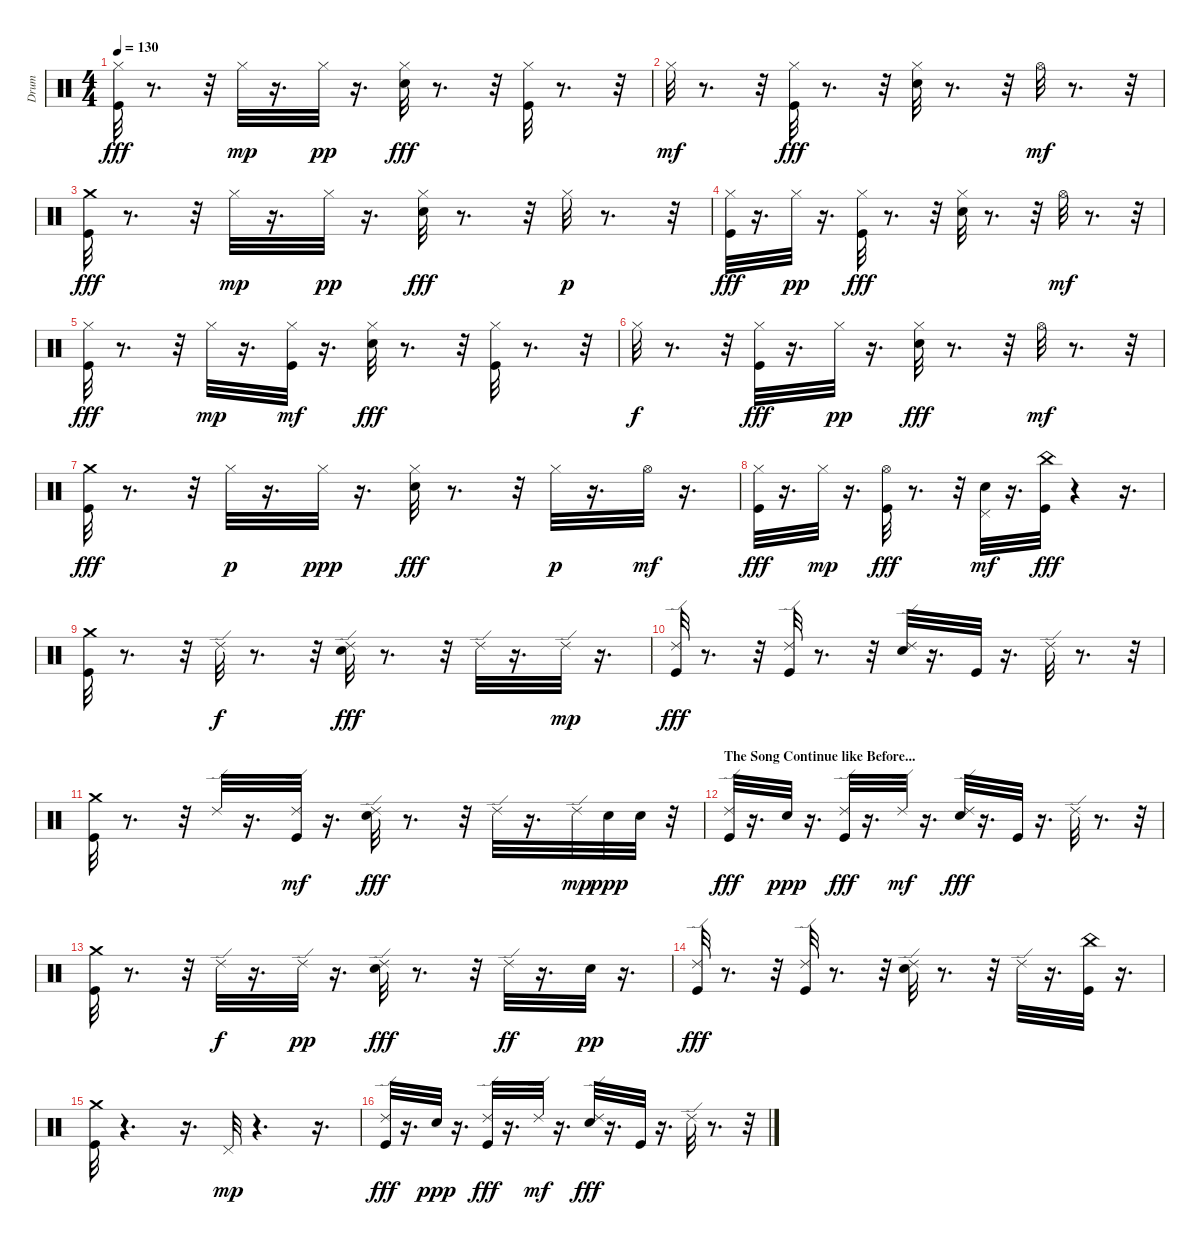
\track ("Drum" "Drum") {instrument percussion}
\staff {score}
\articulation defaults
\ts (4 4)
\tempo 130
\clef neutral
\ks c
("Hi-Hat (closed)" "Kick (hit)").32{dy fff} r.8{d} r.32 "Hi-Hat (closed)".32{dy mp} r.16{d} "Hi-Hat (closed)".32{dy pp} r.16{d} ("Hi-Hat (closed)" "Snare (hit) 2").32{dy fff} r.8{d} r.32 ("Hi-Hat (closed)" "Kick (hit)").32 r.8{d} r.32 |
"Hi-Hat (closed)".32{dy mf} r.8{d} r.32 ("Hi-Hat (closed)" "Kick (hit)").32{dy fff} r.8{d} r.32 ("Hi-Hat (closed)" "Snare (hit) 2").32 r.8{d} r.32 "Hi-Hat (open)".32{dy mf} r.8{d} r.32 |
("Crash medium (hit)" "Kick (hit)").32{dy fff} r.8{d} r.32 "Hi-Hat (closed)".32{dy mp} r.16{d} "Hi-Hat (closed)".32{dy pp} r.16{d} ("Hi-Hat (closed)" "Snare (hit) 2").32{dy fff} r.8{d} r.32 "Hi-Hat (closed)".32{dy p} r.8{d} r.32 |
("Hi-Hat (closed)" "Kick (hit)").32{dy fff} r.16{d} "Hi-Hat (closed)".32{dy pp} r.16{d} ("Hi-Hat (closed)" "Kick (hit)").32{dy fff} r.8{d} r.32 ("Hi-Hat (closed)" "Snare (hit) 2").32 r.8{d} r.32 "Hi-Hat (open)".32{dy mf} r.8{d} r.32 |
("Hi-Hat (closed)" "Kick (hit)").32{dy fff} r.8{d} r.32 "Hi-Hat (closed)".32{dy mp} r.16{d} ("Hi-Hat (closed)" "Kick (hit)").32{dy mf} r.16{d} ("Hi-Hat (closed)" "Snare (hit) 2").32{dy fff} r.8{d} r.32 ("Hi-Hat (closed)" "Kick (hit)").32 r.8{d} r.32 |
"Hi-Hat (closed)".32{dy f} r.8{d} r.32 ("Hi-Hat (closed)" "Kick (hit)").32{dy fff} r.16{d} "Hi-Hat (closed)".32{dy pp} r.16{d} ("Hi-Hat (closed)" "Snare (hit) 2").32{dy fff} r.8{d} r.32 "Hi-Hat (open)".32{dy mf} r.8{d} r.32 |
("Crash medium (hit)" "Kick (hit)").32{dy fff} r.8{d} r.32 "Hi-Hat (closed)".32{dy p} r.16{d} "Hi-Hat (closed)".32{dy ppp} r.16{d} ("Hi-Hat (closed)" "Snare (hit) 2").32{dy fff} r.8{d} r.32 "Hi-Hat (closed)".32{dy p} r.16{d} "Hi-Hat (open)".32{dy mf} r.16{d} |
("Hi-Hat (closed)" "Kick (hit)").32{dy fff} r.16{d} "Hi-Hat (closed)".32{dy mp} r.16{d} ("Hi-Hat (open)" "Kick (hit)").32{dy fff} r.8{d} r.32 ("Snare (hit) 2" "Pedal Hi-Hat (hit)").32{dy mf} r.16{d} ("China (hit)" "Kick (hit)").32{dy fff} r.4 r.16{d} |
("Crash medium (hit)" "Kick (hit)").32 r.8{d} r.32 "Ride (edge) 2".32{dy f} r.8{d} r.32 ("Snare (hit) 2" "Ride (edge) 2").32{dy fff} r.8{d} r.32 "Ride (edge) 2".32 r.16{d} "Ride (edge) 2".32{dy mp} r.16{d} |
("Ride (edge) 2" "Kick (hit)").32{dy fff} r.8{d} r.32 ("Ride (edge) 2" "Kick (hit)").32 r.8{d} r.32 ("Snare (hit) 2" "Ride (edge) 2").32 r.16{d} "Kick (hit)".32 r.16{d} "Ride (edge) 2".32 r.8{d} r.32 |
("Crash medium (hit)" "Kick (hit)").32 r.8{d} r.32 "Ride (edge) 2".32 r.16{d} ("Ride (edge) 2" "Kick (hit)").32{dy mf} r.16{d} ("Ride (edge) 2" "Snare (hit) 2").32{dy fff} r.8{d} r.32 "Ride (edge) 2".32 r.16{d} "Ride (edge) 2".32{dy mp} "Snare (hit) 2".32{dy ppp} "Snare (hit) 2".32 r.32 |
\section ("" "The Song Continue like Before...")
("Ride (edge) 2" "Kick (hit)").32{dy fff} r.16{d} "Snare (hit) 2".32{dy ppp} r.16{d} ("Ride (edge) 2" "Kick (hit)").32{dy fff} r.16{d} "Ride (edge) 2".32{dy mf} r.16{d} ("Ride (edge) 2" "Snare (hit) 2").32{dy fff} r.16{d} "Kick (hit)".32 r.16{d} "Ride (edge) 2".32 r.8{d} r.32 |
("Crash medium (hit)" "Kick (hit)").32 r.8{d} r.32 "Ride (edge) 2".32{dy f} r.16{d} "Ride (edge) 2".32{dy pp} r.16{d} ("Ride (edge) 2" "Snare (hit) 2").32{dy fff} r.8{d} r.32 "Ride (edge) 2".32{dy ff} r.16{d} "Snare (hit) 2".32{dy pp} r.16{d} |
("Ride (edge) 2" "Kick (hit)").32{dy fff} r.8{d} r.32 ("Ride (edge) 2" "Kick (hit)").32 r.8{d} r.32 ("Ride (edge) 2" "Snare (hit) 2").32 r.8{d} r.32 "Ride (edge) 2".32 r.16{d} ("China (hit)" "Kick (hit)").32 r.16{d} |
("Crash medium (hit)" "Kick (hit)").32 r.4{d} r.16{d} "Pedal Hi-Hat (hit)".32{dy mp} r.4{d} r.16{d} |
("Ride (edge) 2" "Kick (hit)").32{dy fff} r.16{d} "Snare (hit) 2".32{dy ppp} r.16{d} ("Ride (edge) 2" "Kick (hit)").32{dy fff} r.16{d} "Ride (edge) 2".32{dy mf} r.16{d} ("Ride (edge) 2" "Snare (hit) 2").32{dy fff} r.16{d} "Kick (hit)".32 r.16{d} "Ride (edge) 2".32 r.8{d} r.32
